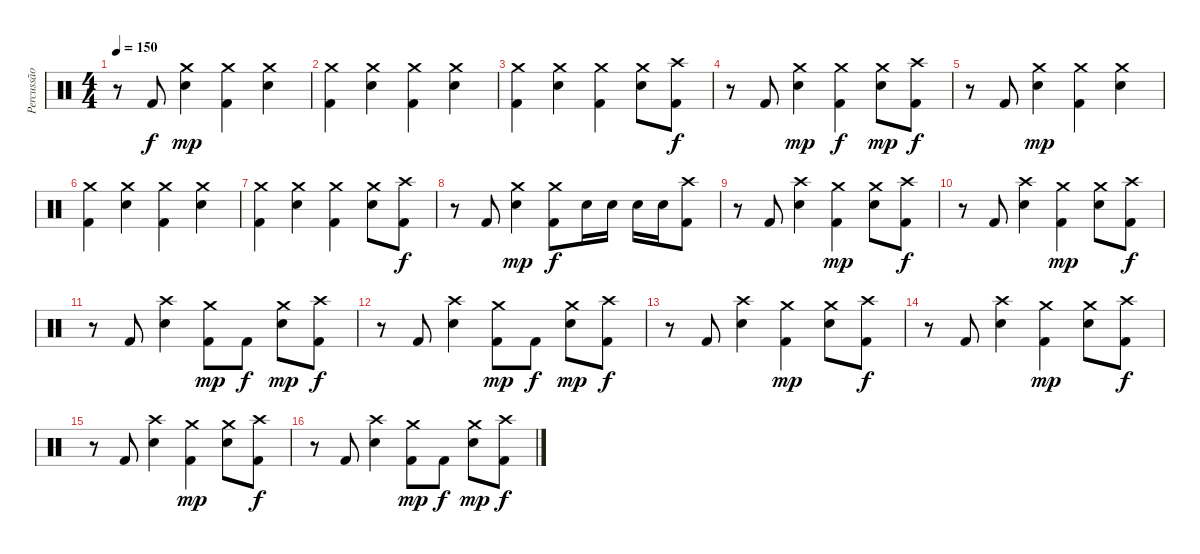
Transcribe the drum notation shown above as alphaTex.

\track ("Percussão" "Percussão") {instrument percussion}
\staff {score}
\articulation defaults
\ts (4 4)
\tempo 150
\clef neutral
\ks c
r.8{dy f} "Kick (hit) 2".8 ("Crash medium (hit)" "Snare (hit) 2").4{dy mp} ("Crash medium (hit)" "Kick (hit) 2").4 ("Crash medium (hit)" "Snare (hit) 2").4 |
("Crash medium (hit)" "Kick (hit) 2").4 ("Crash medium (hit)" "Snare (hit) 2").4 ("Crash medium (hit)" "Kick (hit) 2").4 ("Crash medium (hit)" "Snare (hit) 2").4 |
("Crash medium (hit)" "Kick (hit) 2").4 ("Crash medium (hit)" "Snare (hit) 2").4 ("Crash medium (hit)" "Kick (hit) 2").4 ("Crash medium (hit)" "Snare (hit) 2").8 ("Crash high (hit)" "Kick (hit) 2").8{dy f} |
r.8 "Kick (hit) 2".8 ("Crash medium (hit)" "Snare (hit) 2").4{dy mp} ("Crash medium (hit)" "Kick (hit) 2").4{dy f} ("Crash medium (hit)" "Snare (hit) 2").8{dy mp} ("Crash high (hit)" "Kick (hit) 2").8{dy f} |
r.8 "Kick (hit) 2".8 ("Crash medium (hit)" "Snare (hit) 2").4{dy mp} ("Crash medium (hit)" "Kick (hit) 2").4 ("Crash medium (hit)" "Snare (hit) 2").4 |
("Crash medium (hit)" "Kick (hit) 2").4 ("Crash medium (hit)" "Snare (hit) 2").4 ("Crash medium (hit)" "Kick (hit) 2").4 ("Crash medium (hit)" "Snare (hit) 2").4 |
("Crash medium (hit)" "Kick (hit) 2").4 ("Crash medium (hit)" "Snare (hit) 2").4 ("Crash medium (hit)" "Kick (hit) 2").4 ("Crash medium (hit)" "Snare (hit) 2").8 ("Crash high (hit)" "Kick (hit) 2").8{dy f} |
r.8 "Kick (hit) 2".8 ("Crash medium (hit)" "Snare (hit) 2").4{dy mp} ("Crash medium (hit)" "Kick (hit) 2").8{dy f} "Snare (hit) 2".16 "Snare (hit) 2".16 "Snare (hit) 2".16 "Snare (hit) 2".16 ("Crash high (hit)" "Kick (hit) 2").8 |
r.8 "Kick (hit) 2".8 ("Crash high (hit)" "Snare (hit) 2").4 ("Crash medium (hit)" "Kick (hit) 2").4{dy mp} ("Crash medium (hit)" "Snare (hit) 2").8 ("Crash high (hit)" "Kick (hit) 2").8{dy f} |
r.8 "Kick (hit) 2".8 ("Crash high (hit)" "Snare (hit) 2").4 ("Crash medium (hit)" "Kick (hit) 2").4{dy mp} ("Crash medium (hit)" "Snare (hit) 2").8 ("Crash high (hit)" "Kick (hit) 2").8{dy f} |
r.8 "Kick (hit) 2".8 ("Crash high (hit)" "Snare (hit) 2").4 ("Crash medium (hit)" "Kick (hit) 2").8{dy mp} "Kick (hit) 2".8{dy f} ("Crash medium (hit)" "Snare (hit) 2").8{dy mp} ("Crash high (hit)" "Kick (hit) 2").8{dy f} |
r.8 "Kick (hit) 2".8 ("Crash high (hit)" "Snare (hit) 2").4 ("Crash medium (hit)" "Kick (hit) 2").8{dy mp} "Kick (hit) 2".8{dy f} ("Crash medium (hit)" "Snare (hit) 2").8{dy mp} ("Crash high (hit)" "Kick (hit) 2").8{dy f} |
r.8 "Kick (hit) 2".8 ("Crash high (hit)" "Snare (hit) 2").4 ("Crash medium (hit)" "Kick (hit) 2").4{dy mp} ("Crash medium (hit)" "Snare (hit) 2").8 ("Crash high (hit)" "Kick (hit) 2").8{dy f} |
r.8 "Kick (hit) 2".8 ("Crash high (hit)" "Snare (hit) 2").4 ("Crash medium (hit)" "Kick (hit) 2").4{dy mp} ("Crash medium (hit)" "Snare (hit) 2").8 ("Crash high (hit)" "Kick (hit) 2").8{dy f} |
r.8 "Kick (hit) 2".8 ("Crash high (hit)" "Snare (hit) 2").4 ("Crash medium (hit)" "Kick (hit) 2").4{dy mp} ("Crash medium (hit)" "Snare (hit) 2").8 ("Crash high (hit)" "Kick (hit) 2").8{dy f} |
r.8 "Kick (hit) 2".8 ("Crash high (hit)" "Snare (hit) 2").4 ("Crash medium (hit)" "Kick (hit) 2").8{dy mp} "Kick (hit) 2".8{dy f} ("Crash medium (hit)" "Snare (hit) 2").8{dy mp} ("Crash high (hit)" "Kick (hit) 2").8{dy f}
